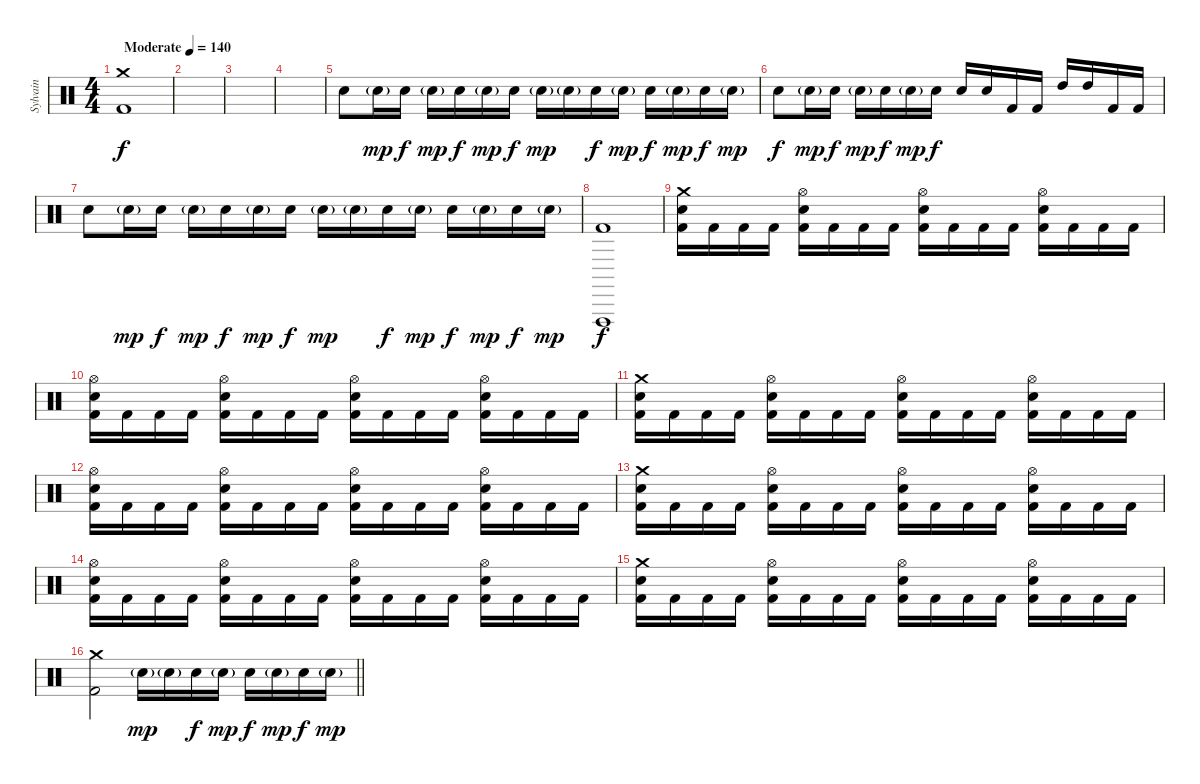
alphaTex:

\track ("Sylvain" "Sylvain") {instrument percussion}
\staff {score}
\articulation defaults
\ts (4 4)
\tempo (140 "Moderate")
\clef neutral
\ks c
("Crash medium (hit)" "Kick (hit) 2").1{dy f} |
|
|
|
"Snare (hit) 2".8 "Snare (hit) 2"{g}.16{dy mp} "Snare (hit) 2".16{dy f} "Snare (hit) 2"{g}.16{dy mp} "Snare (hit) 2".16{dy f} "Snare (hit) 2"{g}.16{dy mp} "Snare (hit) 2".16{dy f} "Snare (hit) 2"{g}.16{dy mp} "Snare (hit) 2"{g}.16 "Snare (hit) 2".16{dy f} "Snare (hit) 2"{g}.16{dy mp} "Snare (hit) 2".16{dy f} "Snare (hit) 2"{g}.16{dy mp} "Snare (hit) 2".16{dy f} "Snare (hit) 2"{g}.16{dy mp} |
"Snare (hit) 2".8{dy f} "Snare (hit) 2"{g}.16{dy mp} "Snare (hit) 2".16{dy f} "Snare (hit) 2"{g}.16{dy mp} "Snare (hit) 2".16{dy f} "Snare (hit) 2"{g}.16{dy mp} "Snare (hit) 2".16{dy f} "Snare (hit) 2".16 "Snare (hit) 2".16 "Kick (hit) 2".16 "Kick (hit) 2".16 "High Tom (hit)".16 "High Tom (hit)".16 "Kick (hit) 2".16 "Kick (hit) 2".16 |
"Snare (hit) 2".8 "Snare (hit) 2"{g}.16{dy mp} "Snare (hit) 2".16{dy f} "Snare (hit) 2"{g}.16{dy mp} "Snare (hit) 2".16{dy f} "Snare (hit) 2"{g}.16{dy mp} "Snare (hit) 2".16{dy f} "Snare (hit) 2"{g}.16{dy mp} "Snare (hit) 2"{g}.16 "Snare (hit) 2".16{dy f} "Snare (hit) 2"{g}.16{dy mp} "Snare (hit) 2".16{dy f} "Snare (hit) 2"{g}.16{dy mp} "Snare (hit) 2".16{dy f} "Snare (hit) 2"{g}.16{dy mp} |
("Vibraslap (hit)" "Kick (hit) 2").1{dy f} |
("Crash medium (hit)" "Snare (hit) 2" "Kick (hit) 2").16 "Kick (hit) 2".16 "Kick (hit) 2".16 "Kick (hit) 2".16 ("Hi-Hat (open)" "Snare (hit) 2" "Kick (hit) 2").16 "Kick (hit) 2".16 "Kick (hit) 2".16 "Kick (hit) 2".16 ("Hi-Hat (open)" "Snare (hit) 2" "Kick (hit) 2").16 "Kick (hit) 2".16 "Kick (hit) 2".16 "Kick (hit) 2".16 ("Hi-Hat (open)" "Snare (hit) 2" "Kick (hit) 2").16 "Kick (hit) 2".16 "Kick (hit) 2".16 "Kick (hit) 2".16 |
("Hi-Hat (open)" "Snare (hit) 2" "Kick (hit) 2").16 "Kick (hit) 2".16 "Kick (hit) 2".16 "Kick (hit) 2".16 ("Hi-Hat (open)" "Snare (hit) 2" "Kick (hit) 2").16 "Kick (hit) 2".16 "Kick (hit) 2".16 "Kick (hit) 2".16 ("Hi-Hat (open)" "Snare (hit) 2" "Kick (hit) 2").16 "Kick (hit) 2".16 "Kick (hit) 2".16 "Kick (hit) 2".16 ("Hi-Hat (open)" "Snare (hit) 2" "Kick (hit) 2").16 "Kick (hit) 2".16 "Kick (hit) 2".16 "Kick (hit) 2".16 |
("Crash medium (hit)" "Snare (hit) 2" "Kick (hit) 2").16 "Kick (hit) 2".16 "Kick (hit) 2".16 "Kick (hit) 2".16 ("Hi-Hat (open)" "Snare (hit) 2" "Kick (hit) 2").16 "Kick (hit) 2".16 "Kick (hit) 2".16 "Kick (hit) 2".16 ("Hi-Hat (open)" "Snare (hit) 2" "Kick (hit) 2").16 "Kick (hit) 2".16 "Kick (hit) 2".16 "Kick (hit) 2".16 ("Hi-Hat (open)" "Snare (hit) 2" "Kick (hit) 2").16 "Kick (hit) 2".16 "Kick (hit) 2".16 "Kick (hit) 2".16 |
("Hi-Hat (open)" "Snare (hit) 2" "Kick (hit) 2").16 "Kick (hit) 2".16 "Kick (hit) 2".16 "Kick (hit) 2".16 ("Hi-Hat (open)" "Snare (hit) 2" "Kick (hit) 2").16 "Kick (hit) 2".16 "Kick (hit) 2".16 "Kick (hit) 2".16 ("Hi-Hat (open)" "Snare (hit) 2" "Kick (hit) 2").16 "Kick (hit) 2".16 "Kick (hit) 2".16 "Kick (hit) 2".16 ("Hi-Hat (open)" "Snare (hit) 2" "Kick (hit) 2").16 "Kick (hit) 2".16 "Kick (hit) 2".16 "Kick (hit) 2".16 |
("Crash medium (hit)" "Snare (hit) 2" "Kick (hit) 2").16 "Kick (hit) 2".16 "Kick (hit) 2".16 "Kick (hit) 2".16 ("Hi-Hat (open)" "Snare (hit) 2" "Kick (hit) 2").16 "Kick (hit) 2".16 "Kick (hit) 2".16 "Kick (hit) 2".16 ("Hi-Hat (open)" "Snare (hit) 2" "Kick (hit) 2").16 "Kick (hit) 2".16 "Kick (hit) 2".16 "Kick (hit) 2".16 ("Hi-Hat (open)" "Snare (hit) 2" "Kick (hit) 2").16 "Kick (hit) 2".16 "Kick (hit) 2".16 "Kick (hit) 2".16 |
("Hi-Hat (open)" "Snare (hit) 2" "Kick (hit) 2").16 "Kick (hit) 2".16 "Kick (hit) 2".16 "Kick (hit) 2".16 ("Hi-Hat (open)" "Snare (hit) 2" "Kick (hit) 2").16 "Kick (hit) 2".16 "Kick (hit) 2".16 "Kick (hit) 2".16 ("Hi-Hat (open)" "Snare (hit) 2" "Kick (hit) 2").16 "Kick (hit) 2".16 "Kick (hit) 2".16 "Kick (hit) 2".16 ("Hi-Hat (open)" "Snare (hit) 2" "Kick (hit) 2").16 "Kick (hit) 2".16 "Kick (hit) 2".16 "Kick (hit) 2".16 |
("Crash medium (hit)" "Snare (hit) 2" "Kick (hit) 2").16 "Kick (hit) 2".16 "Kick (hit) 2".16 "Kick (hit) 2".16 ("Hi-Hat (open)" "Snare (hit) 2" "Kick (hit) 2").16 "Kick (hit) 2".16 "Kick (hit) 2".16 "Kick (hit) 2".16 ("Hi-Hat (open)" "Snare (hit) 2" "Kick (hit) 2").16 "Kick (hit) 2".16 "Kick (hit) 2".16 "Kick (hit) 2".16 ("Hi-Hat (open)" "Snare (hit) 2" "Kick (hit) 2").16 "Kick (hit) 2".16 "Kick (hit) 2".16 "Kick (hit) 2".16 |
\barLineRight lightlight
("Crash medium (hit)" "Kick (hit) 2").2 "Snare (hit) 2"{g}.16{dy mp} "Snare (hit) 2"{g}.16 "Snare (hit) 2".16{dy f} "Snare (hit) 2"{g}.16{dy mp} "Snare (hit) 2".16{dy f} "Snare (hit) 2"{g}.16{dy mp} "Snare (hit) 2".16{dy f} "Snare (hit) 2"{g}.16{dy mp}
